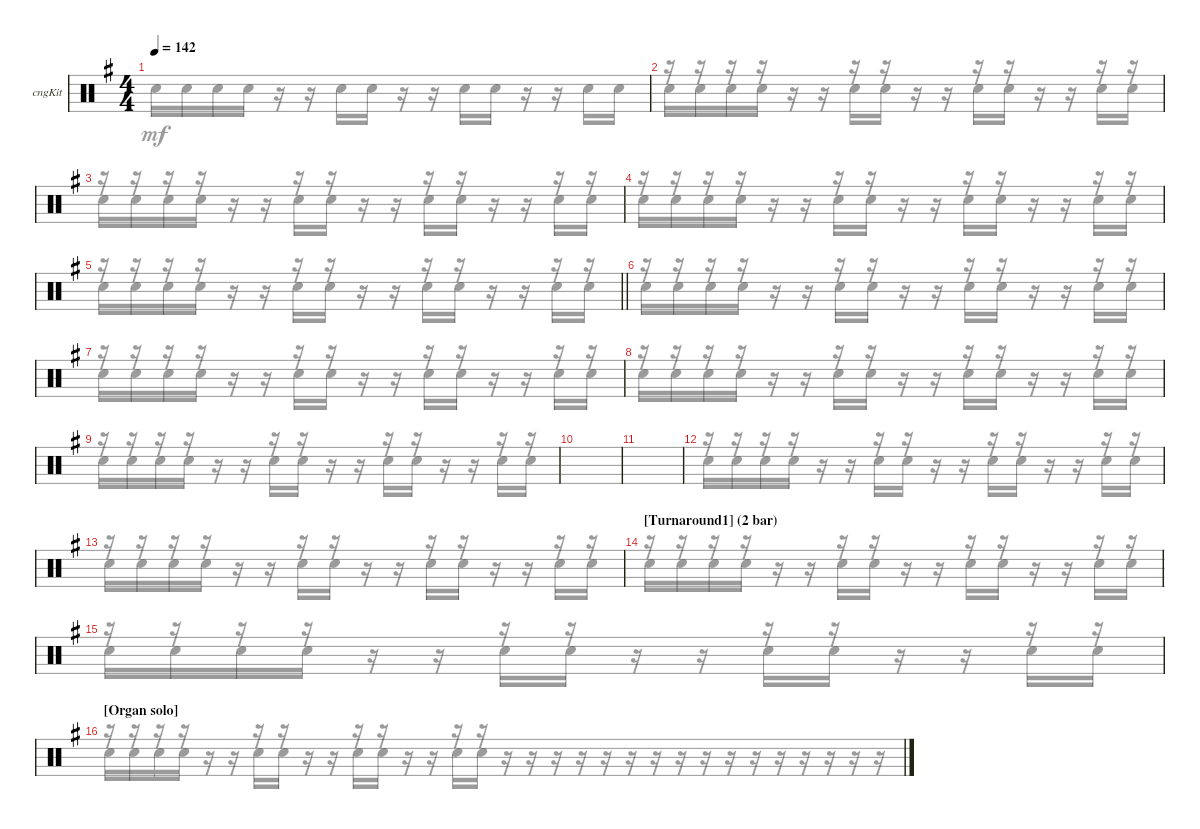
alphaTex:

\bracketExtendMode groupsimilarinstruments
\firstSystemTrackNameOrientation horizontal
\otherSystemsTrackNameOrientation horizontal
\track ("Congas" "cngKit") {instrument percussion}
\staff {score}
\articulation defaults
\voice
\ts (4 4)
\tempo 142
\clef neutral
\ks eminor
|
|
|
|
\barLineRight lightlight
|
|
|
|
|
|
|
|
|
\section ("" "[Turnaround1] (2 bar) ")
|
|
\section ("" "[Organ solo]")
\voice
\clef neutral
\ks eminor
r.16{dy mf} r.16 r.16 r.16 r.16 r.16 r.16 r.16 r.16 r.16 r.16 r.16 r.16 r.16 r.16 r.16 |
r.16 r.16 r.16 r.16 r.16 r.16 r.16 r.16 r.16 r.16 r.16 r.16 r.16 r.16 r.16 r.16 |
r.16 r.16 r.16 r.16 r.16 r.16 r.16 r.16 r.16 r.16 r.16 r.16 r.16 r.16 r.16 r.16 |
r.16 r.16 r.16 r.16 r.16 r.16 r.16 r.16 r.16 r.16 r.16 r.16 r.16 r.16 r.16 r.16 |
\barLineRight lightlight
r.16 r.16 r.16 r.16 r.16 r.16 r.16 r.16 r.16 r.16 r.16 r.16 r.16 r.16 r.16 r.16 |
r.16 r.16 r.16 r.16 r.16 r.16 r.16 r.16 r.16 r.16 r.16 r.16 r.16 r.16 r.16 r.16 |
r.16 r.16 r.16 r.16 r.16 r.16 r.16 r.16 r.16 r.16 r.16 r.16 r.16 r.16 r.16 r.16 |
r.16 r.16 r.16 r.16 r.16 r.16 r.16 r.16 r.16 r.16 r.16 r.16 r.16 r.16 r.16 r.16 |
r.16 r.16 r.16 r.16 r.16 r.16 r.16 r.16 r.16 r.16 r.16 r.16 r.16 r.16 r.16 r.16 |
|
|
r.16 r.16 r.16 r.16 r.16 r.16 r.16 r.16 r.16 r.16 r.16 r.16 r.16 r.16 r.16 r.16 |
r.16 r.16 r.16 r.16 r.16 r.16 r.16 r.16 r.16 r.16 r.16 r.16 r.16 r.16 r.16 r.16 |
r.16 r.16 r.16 r.16 r.16 r.16 r.16 r.16 r.16 r.16 r.16 r.16 r.16 r.16 r.16 r.16 |
r.16 r.16 r.16 r.16 r.16 r.16 r.16 r.16 r.16 r.16 r.16 r.16 r.16 r.16 r.16 r.16 |
r.16 r.16 r.16 r.16 r.16 r.16 r.16 r.16 r.16 r.16 r.16 r.16 r.16 r.16 r.16 r.16
\voice
\clef neutral
\ottava regular
\simile none
\ks eminor "Snare (hit) 2".16{dy mf} "Snare (hit) 2".16 "Snare (hit) 2".16 "Snare (hit) 2".16
r.16 r.16 "Snare (hit) 2".16 "Snare (hit) 2".16 r.16 r.16 "Snare (hit) 2".16 "Snare (hit) 2".16 r.16 r.16 "Snare (hit) 2".16 "Snare (hit) 2".16 |
"Snare (hit) 2".16 "Snare (hit) 2".16 "Snare (hit) 2".16 "Snare (hit) 2".16 r.16 r.16 "Snare (hit) 2".16 "Snare (hit) 2".16 r.16 r.16 "Snare (hit) 2".16 "Snare (hit) 2".16 r.16 r.16 "Snare (hit) 2".16 "Snare (hit) 2".16 |
"Snare (hit) 2".16 "Snare (hit) 2".16 "Snare (hit) 2".16 "Snare (hit) 2".16 r.16 r.16 "Snare (hit) 2".16 "Snare (hit) 2".16 r.16 r.16 "Snare (hit) 2".16 "Snare (hit) 2".16 r.16 r.16 "Snare (hit) 2".16 "Snare (hit) 2".16 |
"Snare (hit) 2".16 "Snare (hit) 2".16 "Snare (hit) 2".16 "Snare (hit) 2".16 r.16 r.16 "Snare (hit) 2".16 "Snare (hit) 2".16 r.16 r.16 "Snare (hit) 2".16 "Snare (hit) 2".16 r.16 r.16 "Snare (hit) 2".16 "Snare (hit) 2".16 |
\barLineRight lightlight "Snare (hit) 2".16 "Snare (hit) 2".16 "Snare (hit) 2".16 "Snare (hit) 2".16
r.16 r.16 "Snare (hit) 2".16 "Snare (hit) 2".16 r.16 r.16 "Snare (hit) 2".16 "Snare (hit) 2".16 r.16 r.16 "Snare (hit) 2".16 "Snare (hit) 2".16 |
"Snare (hit) 2".16 "Snare (hit) 2".16 "Snare (hit) 2".16 "Snare (hit) 2".16 r.16 r.16 "Snare (hit) 2".16 "Snare (hit) 2".16 r.16 r.16 "Snare (hit) 2".16 "Snare (hit) 2".16 r.16 r.16 "Snare (hit) 2".16 "Snare (hit) 2".16 |
"Snare (hit) 2".16 "Snare (hit) 2".16 "Snare (hit) 2".16 "Snare (hit) 2".16 r.16 r.16 "Snare (hit) 2".16 "Snare (hit) 2".16 r.16 r.16 "Snare (hit) 2".16 "Snare (hit) 2".16 r.16 r.16 "Snare (hit) 2".16 "Snare (hit) 2".16 |
"Snare (hit) 2".16 "Snare (hit) 2".16 "Snare (hit) 2".16 "Snare (hit) 2".16 r.16 r.16 "Snare (hit) 2".16 "Snare (hit) 2".16 r.16 r.16 "Snare (hit) 2".16 "Snare (hit) 2".16 r.16 r.16 "Snare (hit) 2".16 "Snare (hit) 2".16 |
"Snare (hit) 2".16 "Snare (hit) 2".16 "Snare (hit) 2".16 "Snare (hit) 2".16 r.16 r.16 "Snare (hit) 2".16 "Snare (hit) 2".16 r.16 r.16 "Snare (hit) 2".16 "Snare (hit) 2".16 r.16 r.16 "Snare (hit) 2".16 "Snare (hit) 2".16 |
|
|
"Snare (hit) 2".16 "Snare (hit) 2".16 "Snare (hit) 2".16 "Snare (hit) 2".16 r.16 r.16 "Snare (hit) 2".16 "Snare (hit) 2".16 r.16 r.16 "Snare (hit) 2".16 "Snare (hit) 2".16 r.16 r.16 "Snare (hit) 2".16 "Snare (hit) 2".16 |
"Snare (hit) 2".16 "Snare (hit) 2".16 "Snare (hit) 2".16 "Snare (hit) 2".16 r.16 r.16 "Snare (hit) 2".16 "Snare (hit) 2".16 r.16 r.16 "Snare (hit) 2".16 "Snare (hit) 2".16 r.16 r.16 "Snare (hit) 2".16 "Snare (hit) 2".16 |
"Snare (hit) 2".16 "Snare (hit) 2".16 "Snare (hit) 2".16 "Snare (hit) 2".16 r.16 r.16 "Snare (hit) 2".16 "Snare (hit) 2".16 r.16 r.16 "Snare (hit) 2".16 "Snare (hit) 2".16 r.16 r.16 "Snare (hit) 2".16 "Snare (hit) 2".16 |
"Snare (hit) 2".16 "Snare (hit) 2".16 "Snare (hit) 2".16 "Snare (hit) 2".16 r.16 r.16 "Snare (hit) 2".16 "Snare (hit) 2".16 r.16 r.16 "Snare (hit) 2".16 "Snare (hit) 2".16 r.16 r.16 "Snare (hit) 2".16 "Snare (hit) 2".16 |
"Snare (hit) 2".16 "Snare (hit) 2".16 "Snare (hit) 2".16 "Snare (hit) 2".16 r.16 r.16 "Snare (hit) 2".16 "Snare (hit) 2".16 r.16 r.16 "Snare (hit) 2".16 "Snare (hit) 2".16 r.16 r.16 "Snare (hit) 2".16 "Snare (hit) 2".16
